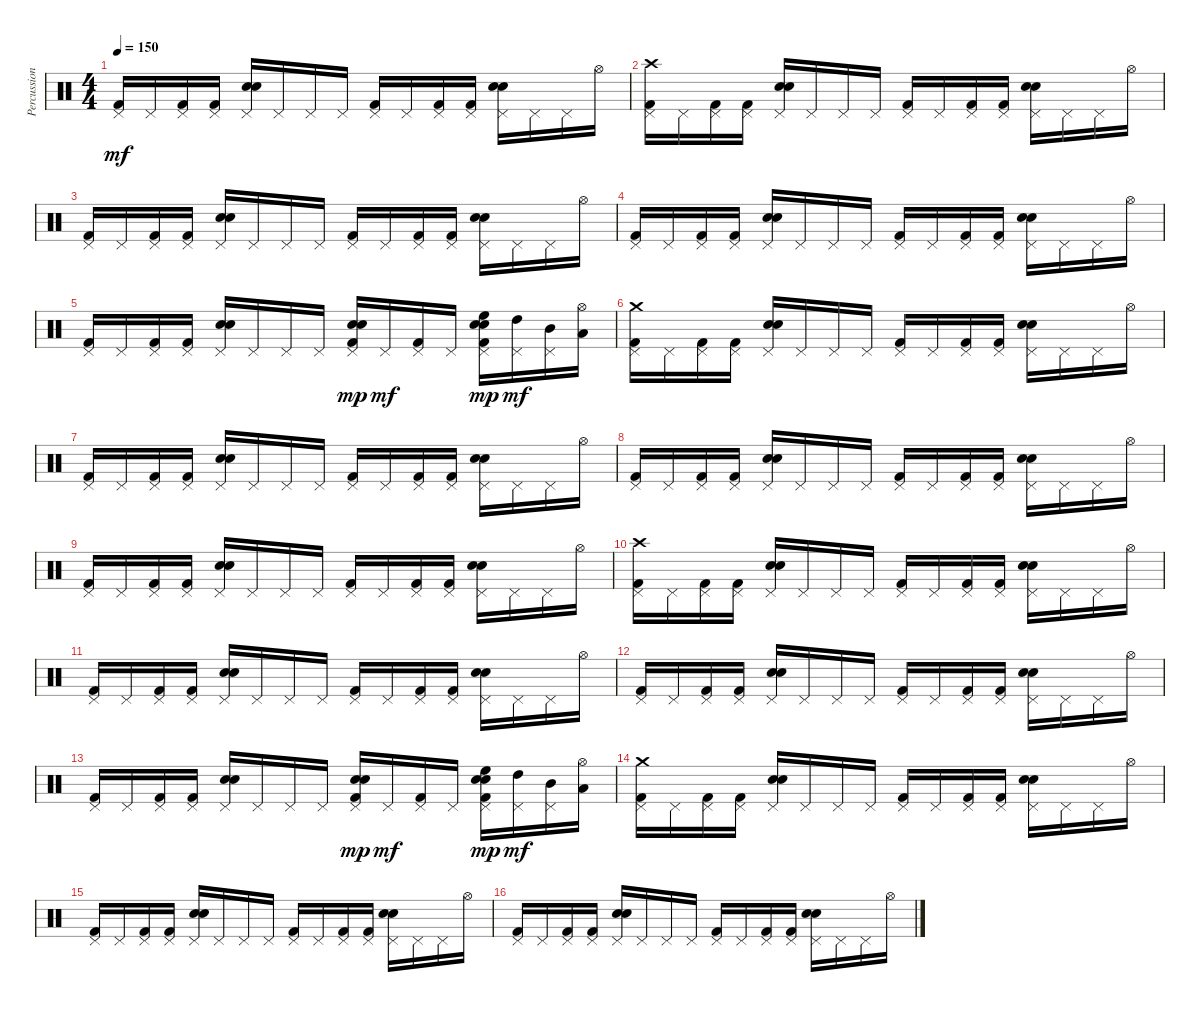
\track ("Percussion (Power Kit)" "Percussion") {instrument percussion}
\staff {score}
\articulation defaults
\ts (4 4)
\tempo 150
\clef neutral
\ks c
("Kick (hit) 2" "Pedal Hi-Hat (hit)").16{dy mf} "Pedal Hi-Hat (hit)".16 ("Pedal Hi-Hat (hit)" "Kick (hit) 2").16 ("Pedal Hi-Hat (hit)" "Kick (hit) 2").16 ("Electric Snare (hit)" "Snare (hit) 2" "Pedal Hi-Hat (hit)").16 "Pedal Hi-Hat (hit)".16 "Pedal Hi-Hat (hit)".16 "Pedal Hi-Hat (hit)".16 ("Kick (hit) 2" "Pedal Hi-Hat (hit)").16 "Pedal Hi-Hat (hit)".16 ("Pedal Hi-Hat (hit)" "Kick (hit) 2").16 ("Pedal Hi-Hat (hit)" "Kick (hit) 2").16 ("Electric Snare (hit)" "Snare (hit) 2" "Pedal Hi-Hat (hit)").16 "Pedal Hi-Hat (hit)".16 "Pedal Hi-Hat (hit)".16 "Hi-Hat (open)".16 |
("Kick (hit) 2" "Pedal Hi-Hat (hit)" "Crash high (hit)").16 "Pedal Hi-Hat (hit)".16 ("Pedal Hi-Hat (hit)" "Kick (hit) 2").16 ("Pedal Hi-Hat (hit)" "Kick (hit) 2").16 ("Electric Snare (hit)" "Snare (hit) 2" "Pedal Hi-Hat (hit)").16 "Pedal Hi-Hat (hit)".16 "Pedal Hi-Hat (hit)".16 "Pedal Hi-Hat (hit)".16 ("Kick (hit) 2" "Pedal Hi-Hat (hit)").16 "Pedal Hi-Hat (hit)".16 ("Pedal Hi-Hat (hit)" "Kick (hit) 2").16 ("Pedal Hi-Hat (hit)" "Kick (hit) 2").16 ("Electric Snare (hit)" "Snare (hit) 2" "Pedal Hi-Hat (hit)").16 "Pedal Hi-Hat (hit)".16 "Pedal Hi-Hat (hit)".16 "Hi-Hat (open)".16 |
("Kick (hit) 2" "Pedal Hi-Hat (hit)").16 "Pedal Hi-Hat (hit)".16 ("Pedal Hi-Hat (hit)" "Kick (hit) 2").16 ("Pedal Hi-Hat (hit)" "Kick (hit) 2").16 ("Electric Snare (hit)" "Snare (hit) 2" "Pedal Hi-Hat (hit)").16 "Pedal Hi-Hat (hit)".16 "Pedal Hi-Hat (hit)".16 "Pedal Hi-Hat (hit)".16 ("Kick (hit) 2" "Pedal Hi-Hat (hit)").16 "Pedal Hi-Hat (hit)".16 ("Pedal Hi-Hat (hit)" "Kick (hit) 2").16 ("Pedal Hi-Hat (hit)" "Kick (hit) 2").16 ("Electric Snare (hit)" "Snare (hit) 2" "Pedal Hi-Hat (hit)").16 "Pedal Hi-Hat (hit)".16 "Pedal Hi-Hat (hit)".16 "Hi-Hat (open)".16 |
("Kick (hit) 2" "Pedal Hi-Hat (hit)").16 "Pedal Hi-Hat (hit)".16 ("Pedal Hi-Hat (hit)" "Kick (hit) 2").16 ("Pedal Hi-Hat (hit)" "Kick (hit) 2").16 ("Electric Snare (hit)" "Snare (hit) 2" "Pedal Hi-Hat (hit)").16 "Pedal Hi-Hat (hit)".16 "Pedal Hi-Hat (hit)".16 "Pedal Hi-Hat (hit)".16 ("Kick (hit) 2" "Pedal Hi-Hat (hit)").16 "Pedal Hi-Hat (hit)".16 ("Pedal Hi-Hat (hit)" "Kick (hit) 2").16 ("Pedal Hi-Hat (hit)" "Kick (hit) 2").16 ("Electric Snare (hit)" "Snare (hit) 2" "Pedal Hi-Hat (hit)").16 "Pedal Hi-Hat (hit)".16 "Pedal Hi-Hat (hit)".16 "Hi-Hat (open)".16 |
("Kick (hit) 2" "Pedal Hi-Hat (hit)").16 "Pedal Hi-Hat (hit)".16 ("Pedal Hi-Hat (hit)" "Kick (hit) 2").16 ("Pedal Hi-Hat (hit)" "Kick (hit) 2").16 ("Electric Snare (hit)" "Snare (hit) 2" "Pedal Hi-Hat (hit)").16 "Pedal Hi-Hat (hit)".16 "Pedal Hi-Hat (hit)".16 "Pedal Hi-Hat (hit)".16 ("Pedal Hi-Hat (hit)" "Electric Snare (hit)" "Kick (hit) 2" "Snare (hit) 2").16{dy mp} "Pedal Hi-Hat (hit)".16{dy mf} ("Pedal Hi-Hat (hit)" "Kick (hit) 2").16 "Pedal Hi-Hat (hit)".16 ("Pedal Hi-Hat (hit)" "Kick (hit) 2" "Electric Snare (hit)" "Snare (hit) 2" "High Floor Tom (hit)").16{dy mp} ("Pedal Hi-Hat (hit)" "High Tom (hit)").16{dy mf} ("Pedal Hi-Hat (hit)" "Mid Tom (hit)").16 ("Hi-Hat (open)" "Low Tom (hit)").16 |
("Kick (hit) 2" "Pedal Hi-Hat (hit)" "Crash medium (hit)").16 "Pedal Hi-Hat (hit)".16 ("Pedal Hi-Hat (hit)" "Kick (hit) 2").16 ("Pedal Hi-Hat (hit)" "Kick (hit) 2").16 ("Electric Snare (hit)" "Snare (hit) 2" "Pedal Hi-Hat (hit)").16 "Pedal Hi-Hat (hit)".16 "Pedal Hi-Hat (hit)".16 "Pedal Hi-Hat (hit)".16 ("Kick (hit) 2" "Pedal Hi-Hat (hit)").16 "Pedal Hi-Hat (hit)".16 ("Pedal Hi-Hat (hit)" "Kick (hit) 2").16 ("Pedal Hi-Hat (hit)" "Kick (hit) 2").16 ("Electric Snare (hit)" "Snare (hit) 2" "Pedal Hi-Hat (hit)").16 "Pedal Hi-Hat (hit)".16 "Pedal Hi-Hat (hit)".16 "Hi-Hat (open)".16 |
("Kick (hit) 2" "Pedal Hi-Hat (hit)").16 "Pedal Hi-Hat (hit)".16 ("Pedal Hi-Hat (hit)" "Kick (hit) 2").16 ("Pedal Hi-Hat (hit)" "Kick (hit) 2").16 ("Electric Snare (hit)" "Snare (hit) 2" "Pedal Hi-Hat (hit)").16 "Pedal Hi-Hat (hit)".16 "Pedal Hi-Hat (hit)".16 "Pedal Hi-Hat (hit)".16 ("Kick (hit) 2" "Pedal Hi-Hat (hit)").16 "Pedal Hi-Hat (hit)".16 ("Pedal Hi-Hat (hit)" "Kick (hit) 2").16 ("Pedal Hi-Hat (hit)" "Kick (hit) 2").16 ("Electric Snare (hit)" "Snare (hit) 2" "Pedal Hi-Hat (hit)").16 "Pedal Hi-Hat (hit)".16 "Pedal Hi-Hat (hit)".16 "Hi-Hat (open)".16 |
("Kick (hit) 2" "Pedal Hi-Hat (hit)").16 "Pedal Hi-Hat (hit)".16 ("Pedal Hi-Hat (hit)" "Kick (hit) 2").16 ("Pedal Hi-Hat (hit)" "Kick (hit) 2").16 ("Electric Snare (hit)" "Snare (hit) 2" "Pedal Hi-Hat (hit)").16 "Pedal Hi-Hat (hit)".16 "Pedal Hi-Hat (hit)".16 "Pedal Hi-Hat (hit)".16 ("Kick (hit) 2" "Pedal Hi-Hat (hit)").16 "Pedal Hi-Hat (hit)".16 ("Pedal Hi-Hat (hit)" "Kick (hit) 2").16 ("Pedal Hi-Hat (hit)" "Kick (hit) 2").16 ("Electric Snare (hit)" "Snare (hit) 2" "Pedal Hi-Hat (hit)").16 "Pedal Hi-Hat (hit)".16 "Pedal Hi-Hat (hit)".16 "Hi-Hat (open)".16 |
("Kick (hit) 2" "Pedal Hi-Hat (hit)").16 "Pedal Hi-Hat (hit)".16 ("Pedal Hi-Hat (hit)" "Kick (hit) 2").16 ("Pedal Hi-Hat (hit)" "Kick (hit) 2").16 ("Electric Snare (hit)" "Snare (hit) 2" "Pedal Hi-Hat (hit)").16 "Pedal Hi-Hat (hit)".16 "Pedal Hi-Hat (hit)".16 "Pedal Hi-Hat (hit)".16 ("Kick (hit) 2" "Pedal Hi-Hat (hit)").16 "Pedal Hi-Hat (hit)".16 ("Pedal Hi-Hat (hit)" "Kick (hit) 2").16 ("Pedal Hi-Hat (hit)" "Kick (hit) 2").16 ("Electric Snare (hit)" "Snare (hit) 2" "Pedal Hi-Hat (hit)").16 "Pedal Hi-Hat (hit)".16 "Pedal Hi-Hat (hit)".16 "Hi-Hat (open)".16 |
("Kick (hit) 2" "Pedal Hi-Hat (hit)" "Crash high (hit)").16 "Pedal Hi-Hat (hit)".16 ("Pedal Hi-Hat (hit)" "Kick (hit) 2").16 ("Pedal Hi-Hat (hit)" "Kick (hit) 2").16 ("Electric Snare (hit)" "Snare (hit) 2" "Pedal Hi-Hat (hit)").16 "Pedal Hi-Hat (hit)".16 "Pedal Hi-Hat (hit)".16 "Pedal Hi-Hat (hit)".16 ("Kick (hit) 2" "Pedal Hi-Hat (hit)").16 "Pedal Hi-Hat (hit)".16 ("Pedal Hi-Hat (hit)" "Kick (hit) 2").16 ("Pedal Hi-Hat (hit)" "Kick (hit) 2").16 ("Electric Snare (hit)" "Snare (hit) 2" "Pedal Hi-Hat (hit)").16 "Pedal Hi-Hat (hit)".16 "Pedal Hi-Hat (hit)".16 "Hi-Hat (open)".16 |
("Kick (hit) 2" "Pedal Hi-Hat (hit)").16 "Pedal Hi-Hat (hit)".16 ("Pedal Hi-Hat (hit)" "Kick (hit) 2").16 ("Pedal Hi-Hat (hit)" "Kick (hit) 2").16 ("Electric Snare (hit)" "Snare (hit) 2" "Pedal Hi-Hat (hit)").16 "Pedal Hi-Hat (hit)".16 "Pedal Hi-Hat (hit)".16 "Pedal Hi-Hat (hit)".16 ("Kick (hit) 2" "Pedal Hi-Hat (hit)").16 "Pedal Hi-Hat (hit)".16 ("Pedal Hi-Hat (hit)" "Kick (hit) 2").16 ("Pedal Hi-Hat (hit)" "Kick (hit) 2").16 ("Electric Snare (hit)" "Snare (hit) 2" "Pedal Hi-Hat (hit)").16 "Pedal Hi-Hat (hit)".16 "Pedal Hi-Hat (hit)".16 "Hi-Hat (open)".16 |
("Kick (hit) 2" "Pedal Hi-Hat (hit)").16 "Pedal Hi-Hat (hit)".16 ("Pedal Hi-Hat (hit)" "Kick (hit) 2").16 ("Pedal Hi-Hat (hit)" "Kick (hit) 2").16 ("Electric Snare (hit)" "Snare (hit) 2" "Pedal Hi-Hat (hit)").16 "Pedal Hi-Hat (hit)".16 "Pedal Hi-Hat (hit)".16 "Pedal Hi-Hat (hit)".16 ("Kick (hit) 2" "Pedal Hi-Hat (hit)").16 "Pedal Hi-Hat (hit)".16 ("Pedal Hi-Hat (hit)" "Kick (hit) 2").16 ("Pedal Hi-Hat (hit)" "Kick (hit) 2").16 ("Electric Snare (hit)" "Snare (hit) 2" "Pedal Hi-Hat (hit)").16 "Pedal Hi-Hat (hit)".16 "Pedal Hi-Hat (hit)".16 "Hi-Hat (open)".16 |
("Kick (hit) 2" "Pedal Hi-Hat (hit)").16 "Pedal Hi-Hat (hit)".16 ("Pedal Hi-Hat (hit)" "Kick (hit) 2").16 ("Pedal Hi-Hat (hit)" "Kick (hit) 2").16 ("Electric Snare (hit)" "Snare (hit) 2" "Pedal Hi-Hat (hit)").16 "Pedal Hi-Hat (hit)".16 "Pedal Hi-Hat (hit)".16 "Pedal Hi-Hat (hit)".16 ("Pedal Hi-Hat (hit)" "Electric Snare (hit)" "Kick (hit) 2" "Snare (hit) 2").16{dy mp} "Pedal Hi-Hat (hit)".16{dy mf} ("Pedal Hi-Hat (hit)" "Kick (hit) 2").16 "Pedal Hi-Hat (hit)".16 ("Pedal Hi-Hat (hit)" "Kick (hit) 2" "Electric Snare (hit)" "Snare (hit) 2" "High Floor Tom (hit)").16{dy mp} ("Pedal Hi-Hat (hit)" "High Tom (hit)").16{dy mf} ("Pedal Hi-Hat (hit)" "Mid Tom (hit)").16 ("Hi-Hat (open)" "Low Tom (hit)").16 |
("Kick (hit) 2" "Pedal Hi-Hat (hit)" "Crash medium (hit)").16 "Pedal Hi-Hat (hit)".16 ("Pedal Hi-Hat (hit)" "Kick (hit) 2").16 ("Pedal Hi-Hat (hit)" "Kick (hit) 2").16 ("Electric Snare (hit)" "Snare (hit) 2" "Pedal Hi-Hat (hit)").16 "Pedal Hi-Hat (hit)".16 "Pedal Hi-Hat (hit)".16 "Pedal Hi-Hat (hit)".16 ("Kick (hit) 2" "Pedal Hi-Hat (hit)").16 "Pedal Hi-Hat (hit)".16 ("Pedal Hi-Hat (hit)" "Kick (hit) 2").16 ("Pedal Hi-Hat (hit)" "Kick (hit) 2").16 ("Electric Snare (hit)" "Snare (hit) 2" "Pedal Hi-Hat (hit)").16 "Pedal Hi-Hat (hit)".16 "Pedal Hi-Hat (hit)".16 "Hi-Hat (open)".16 |
("Kick (hit) 2" "Pedal Hi-Hat (hit)").16 "Pedal Hi-Hat (hit)".16 ("Pedal Hi-Hat (hit)" "Kick (hit) 2").16 ("Pedal Hi-Hat (hit)" "Kick (hit) 2").16 ("Electric Snare (hit)" "Snare (hit) 2" "Pedal Hi-Hat (hit)").16 "Pedal Hi-Hat (hit)".16 "Pedal Hi-Hat (hit)".16 "Pedal Hi-Hat (hit)".16 ("Kick (hit) 2" "Pedal Hi-Hat (hit)").16 "Pedal Hi-Hat (hit)".16 ("Pedal Hi-Hat (hit)" "Kick (hit) 2").16 ("Pedal Hi-Hat (hit)" "Kick (hit) 2").16 ("Electric Snare (hit)" "Snare (hit) 2" "Pedal Hi-Hat (hit)").16 "Pedal Hi-Hat (hit)".16 "Pedal Hi-Hat (hit)".16 "Hi-Hat (open)".16 |
("Kick (hit) 2" "Pedal Hi-Hat (hit)").16 "Pedal Hi-Hat (hit)".16 ("Pedal Hi-Hat (hit)" "Kick (hit) 2").16 ("Pedal Hi-Hat (hit)" "Kick (hit) 2").16 ("Electric Snare (hit)" "Snare (hit) 2" "Pedal Hi-Hat (hit)").16 "Pedal Hi-Hat (hit)".16 "Pedal Hi-Hat (hit)".16 "Pedal Hi-Hat (hit)".16 ("Kick (hit) 2" "Pedal Hi-Hat (hit)").16 "Pedal Hi-Hat (hit)".16 ("Pedal Hi-Hat (hit)" "Kick (hit) 2").16 ("Pedal Hi-Hat (hit)" "Kick (hit) 2").16 ("Electric Snare (hit)" "Snare (hit) 2" "Pedal Hi-Hat (hit)").16 "Pedal Hi-Hat (hit)".16 "Pedal Hi-Hat (hit)".16 "Hi-Hat (open)".16
